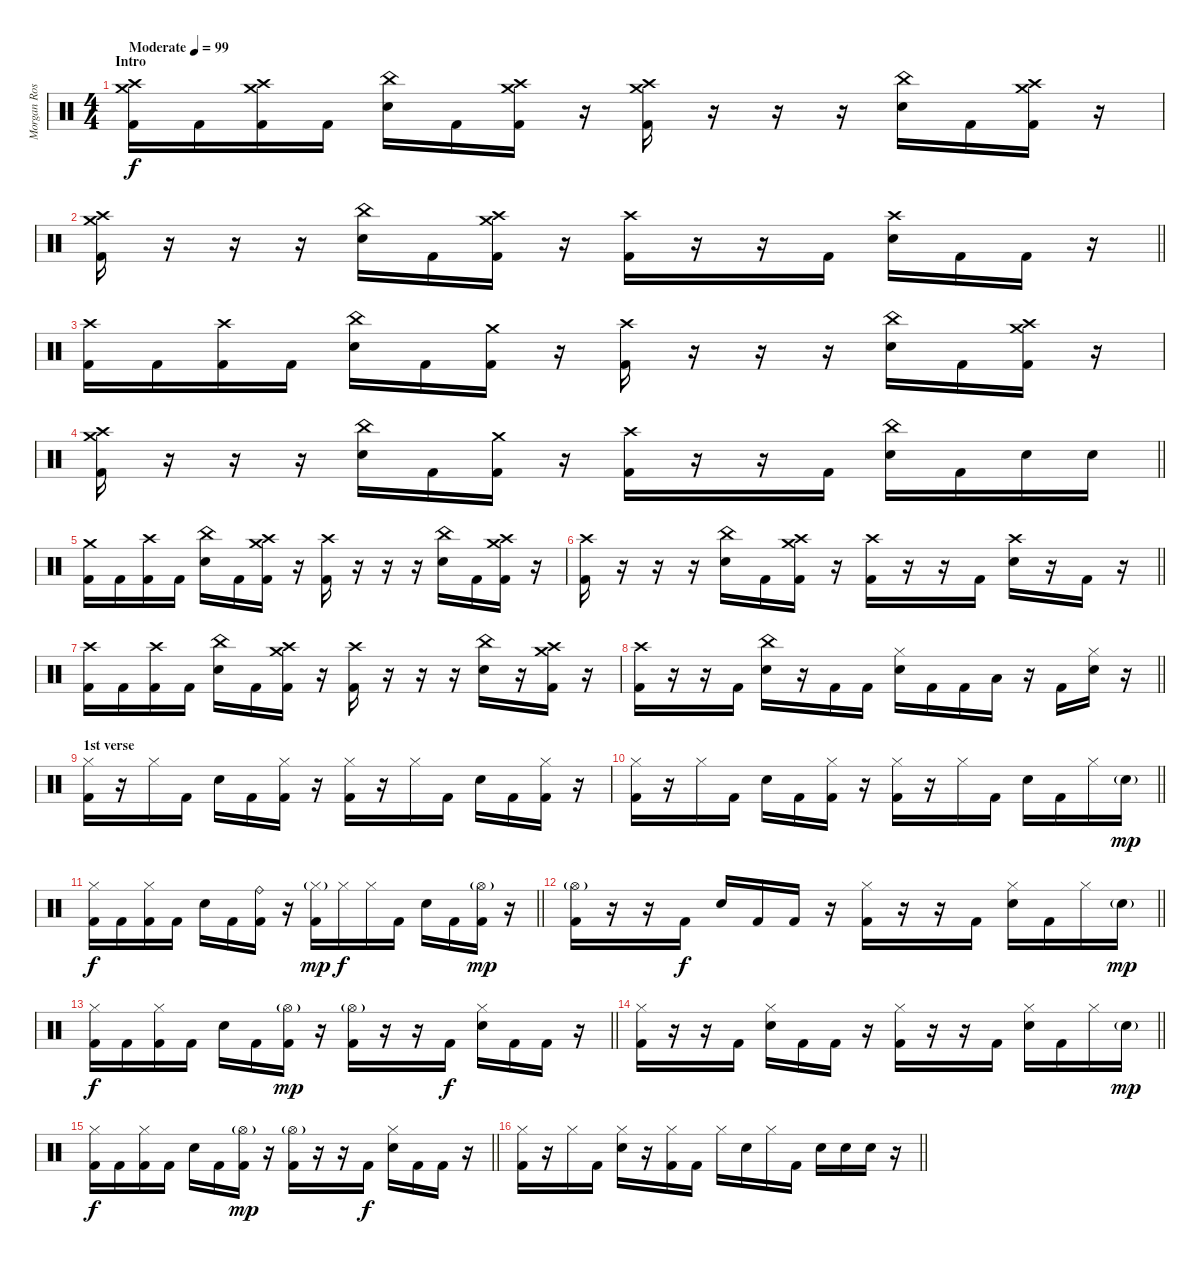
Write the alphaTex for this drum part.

\track ("Morgan Rose" "Morgan Ros") {instrument percussion}
\staff {score}
\articulation defaults
\ts (4 4)
\section ("" "Intro")
\tempo (99 "Moderate")
\clef neutral
\ks c
("Crash medium (hit)" "Crash high (hit)" "Kick (hit) 2").16{dy f} "Kick (hit) 2".16 ("Crash medium (hit)" "Crash high (hit)" "Kick (hit) 2").16 "Kick (hit) 2".16 ("China (hit)" "Snare (hit) 2").16 "Kick (hit) 2".16 ("Crash medium (hit)" "Crash high (hit)" "Kick (hit) 2").16 r.16 ("Crash medium (hit)" "Crash high (hit)" "Kick (hit) 2").16 r.16 r.16 r.16 ("China (hit)" "Snare (hit) 2").16 "Kick (hit) 2".16 ("Crash medium (hit)" "Crash high (hit)" "Kick (hit) 2").16 r.16 |
\barLineRight lightlight
("Crash medium (hit)" "Crash high (hit)" "Kick (hit) 2").16 r.16 r.16 r.16 ("China (hit)" "Snare (hit) 2").16 "Kick (hit) 2".16 ("Crash medium (hit)" "Crash high (hit)" "Kick (hit) 2").16 r.16 ("Crash high (hit)" "Kick (hit) 2").16 r.16 r.16 "Kick (hit) 2".16 ("Crash high (hit)" "Snare (hit) 2").16 "Kick (hit) 2".16 "Kick (hit) 2".16 r.16 |
("Crash high (hit)" "Kick (hit) 2").16 "Kick (hit) 2".16 ("Crash high (hit)" "Kick (hit) 2").16 "Kick (hit) 2".16 ("China (hit)" "Snare (hit) 2").16 "Kick (hit) 2".16 ("Crash medium (hit)" "Kick (hit) 2").16 r.16 ("Crash high (hit)" "Kick (hit) 2").16 r.16 r.16 r.16 ("China (hit)" "Snare (hit) 2").16 "Kick (hit) 2".16 ("Crash medium (hit)" "Crash high (hit)" "Kick (hit) 2").16 r.16 |
\barLineRight lightlight
("Crash medium (hit)" "Crash high (hit)" "Kick (hit) 2").16 r.16 r.16 r.16 ("China (hit)" "Snare (hit) 2").16 "Kick (hit) 2".16 ("Crash medium (hit)" "Kick (hit) 2").16 r.16 ("Crash high (hit)" "Kick (hit) 2").16 r.16 r.16 "Kick (hit) 2".16 ("China (hit)" "Snare (hit) 2").16 "Kick (hit) 2".16 "Snare (hit) 2".16 "Snare (hit) 2".16 |
("Crash medium (hit)" "Kick (hit) 2").16 "Kick (hit) 2".16 ("Crash high (hit)" "Kick (hit) 2").16 "Kick (hit) 2".16 ("China (hit)" "Snare (hit) 2").16 "Kick (hit) 2".16 ("Crash medium (hit)" "Crash high (hit)" "Kick (hit) 2").16 r.16 ("Crash high (hit)" "Kick (hit) 2").16 r.16 r.16 r.16 ("China (hit)" "Snare (hit) 2").16 "Kick (hit) 2".16 ("Crash medium (hit)" "Crash high (hit)" "Kick (hit) 2").16 r.16 |
\barLineRight lightlight
("Crash high (hit)" "Kick (hit) 2").16 r.16 r.16 r.16 ("China (hit)" "Snare (hit) 2").16 "Kick (hit) 2".16 ("Crash medium (hit)" "Crash high (hit)" "Kick (hit) 2").16 r.16 ("Crash high (hit)" "Kick (hit) 2").16 r.16 r.16 "Kick (hit) 2".16 ("Crash high (hit)" "Snare (hit) 2").16 r.16 "Kick (hit) 2".16 r.16 |
("Crash high (hit)" "Kick (hit) 2").16 "Kick (hit) 2".16 ("Crash high (hit)" "Kick (hit) 2").16 "Kick (hit) 2".16 ("China (hit)" "Snare (hit) 2").16 "Kick (hit) 2".16 ("Crash medium (hit)" "Crash high (hit)" "Kick (hit) 2").16 r.16 ("Crash high (hit)" "Kick (hit) 2").16 r.16 r.16 r.16 ("China (hit)" "Snare (hit) 2").16 r.16 ("Crash medium (hit)" "Crash high (hit)" "Kick (hit) 2").16 r.16 |
\barLineRight lightlight
("Crash high (hit)" "Kick (hit) 2").16 r.16 r.16 "Kick (hit) 2".16 ("China (hit)" "Snare (hit) 2").16 r.16 "Kick (hit) 2".16 "Kick (hit) 2".16 ("Hi-Hat (closed)" "Snare (hit) 2").16 "Kick (hit) 2".16 "Kick (hit) 2".16 "Low Tom (hit)".16 r.16 "Kick (hit) 2".16 ("Hi-Hat (closed)" "Snare (hit) 2").16 r.16 |
\section ("" "1st verse")
("Hi-Hat (closed)" "Kick (hit) 2").16 r.16 "Hi-Hat (closed)".16 "Kick (hit) 2".16 "Snare (hit) 2".16 "Kick (hit) 2".16 ("Hi-Hat (closed)" "Kick (hit) 2").16 r.16 ("Hi-Hat (closed)" "Kick (hit) 2").16 r.16 "Hi-Hat (closed)".16 "Kick (hit) 2".16 "Snare (hit) 2".16 "Kick (hit) 2".16 ("Hi-Hat (closed)" "Kick (hit) 2").16 r.16 |
\barLineRight lightlight
("Hi-Hat (closed)" "Kick (hit) 2").16 r.16 "Hi-Hat (closed)".16 "Kick (hit) 2".16 "Snare (hit) 2".16 "Kick (hit) 2".16 ("Hi-Hat (closed)" "Kick (hit) 2").16 r.16 ("Hi-Hat (closed)" "Kick (hit) 2").16 r.16 "Hi-Hat (closed)".16 "Kick (hit) 2".16 "Snare (hit) 2".16 "Kick (hit) 2".16 "Hi-Hat (closed)".16 "Snare (hit) 2"{g}.16{dy mp} |
\barLineRight lightlight
("Hi-Hat (closed)" "Kick (hit) 2").16{dy f} "Kick (hit) 2".16 ("Hi-Hat (closed)" "Kick (hit) 2").16 "Kick (hit) 2".16 "Snare (hit) 2".16 "Kick (hit) 2".16 ("Ride (bell)" "Kick (hit) 2").16 r.16 ("Hi-Hat (closed)"{g} "Kick (hit) 2").16{dy mp} "Hi-Hat (closed)".16{dy f} "Hi-Hat (closed)".16 "Kick (hit) 2".16 "Snare (hit) 2".16 "Kick (hit) 2".16 ("Hi-Hat (open)"{g} "Kick (hit) 2").16{dy mp} r.16 |
\barLineRight lightlight
("Hi-Hat (open)"{g} "Kick (hit) 2").16 r.16 r.16 "Kick (hit) 2".16{dy f} "Snare (hit) 2".16 "Kick (hit) 2".16 "Kick (hit) 2".16 r.16 ("Hi-Hat (closed)" "Kick (hit) 2").16 r.16 r.16 "Kick (hit) 2".16 ("Hi-Hat (closed)" "Snare (hit) 2").16 "Kick (hit) 2".16 "Hi-Hat (closed)".16 "Snare (hit) 2"{g}.16{dy mp} |
\barLineRight lightlight
("Hi-Hat (closed)" "Kick (hit) 2").16{dy f} "Kick (hit) 2".16 ("Hi-Hat (closed)" "Kick (hit) 2").16 "Kick (hit) 2".16 "Snare (hit) 2".16 "Kick (hit) 2".16 ("Hi-Hat (open)"{g} "Kick (hit) 2").16{dy mp} r.16 ("Hi-Hat (open)"{g} "Kick (hit) 2").16 r.16 r.16 "Kick (hit) 2".16{dy f} ("Hi-Hat (closed)" "Snare (hit) 2").16 "Kick (hit) 2".16 "Kick (hit) 2".16 r.16 |
\barLineRight lightlight
("Hi-Hat (closed)" "Kick (hit) 2").16 r.16 r.16 "Kick (hit) 2".16 ("Hi-Hat (closed)" "Snare (hit) 2").16 "Kick (hit) 2".16 "Kick (hit) 2".16 r.16 ("Hi-Hat (closed)" "Kick (hit) 2").16 r.16 r.16 "Kick (hit) 2".16 ("Hi-Hat (closed)" "Snare (hit) 2").16 "Kick (hit) 2".16 "Hi-Hat (closed)".16 "Snare (hit) 2"{g}.16{dy mp} |
\barLineRight lightlight
("Hi-Hat (closed)" "Kick (hit) 2").16{dy f} "Kick (hit) 2".16 ("Hi-Hat (closed)" "Kick (hit) 2").16 "Kick (hit) 2".16 "Snare (hit) 2".16 "Kick (hit) 2".16 ("Hi-Hat (open)"{g} "Kick (hit) 2").16{dy mp} r.16 ("Hi-Hat (open)"{g} "Kick (hit) 2").16 r.16 r.16 "Kick (hit) 2".16{dy f} ("Hi-Hat (closed)" "Snare (hit) 2").16 "Kick (hit) 2".16 "Kick (hit) 2".16 r.16 |
\barLineRight lightlight
("Hi-Hat (closed)" "Kick (hit) 2").16 r.16 "Hi-Hat (closed)".16 "Kick (hit) 2".16 ("Hi-Hat (closed)" "Snare (hit) 2").16 r.16 ("Hi-Hat (closed)" "Kick (hit) 2").16 "Kick (hit) 2".16 "Hi-Hat (closed)".16 "Snare (hit) 2".16 "Hi-Hat (closed)".16 "Kick (hit) 2".16 "Snare (hit) 2".16 "Snare (hit) 2".16 "Snare (hit) 2".16 r.16
